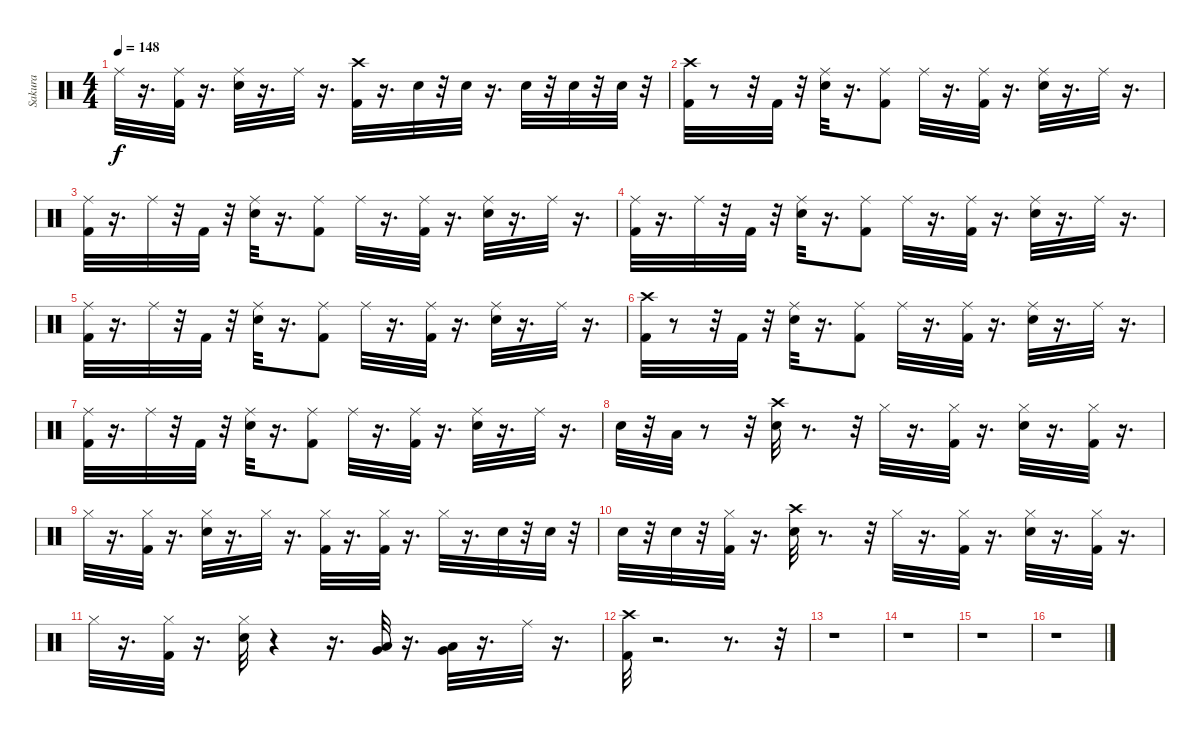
\track ("Sakura" "Sakura") {instrument percussion}
\staff {score}
\articulation defaults
\ts (4 4)
\tempo 148
\clef neutral
\ks c "Ride (middle)".32{dy f}
r.16{d} ("Ride (middle)" "Kick (hit) 2").32 r.16{d} ("Ride (middle)" "Snare (hit) 2").32 r.16{d} "Ride (middle)".32 r.16{d} ("Crash high (hit)" "Kick (hit) 2").32 r.16{d} "Snare (hit) 2".32 r.32 "Snare (hit) 2".32 r.16{d} "Snare (hit) 2".32 r.32 "Snare (hit) 2".32 r.32 "Snare (hit) 2".32 r.32 |
("Crash high (hit)" "Kick (hit) 2").32 r.8 r.32 "Kick (hit) 2".32 r.32 ("Ride (middle)" "Snare (hit) 2").32 r.16{d} ("Ride (middle)" "Kick (hit) 2").8 "Ride (middle)".32 r.16{d} ("Ride (middle)" "Kick (hit) 2").32 r.16{d} ("Ride (middle)" "Snare (hit) 2").32 r.16{d} "Ride (middle)".32 r.16{d} |
("Kick (hit) 2" "Ride (middle)").32 r.16{d} "Ride (middle)".32 r.32 "Kick (hit) 2".32 r.32 ("Ride (middle)" "Snare (hit) 2").32 r.16{d} ("Ride (middle)" "Kick (hit) 2").8 "Ride (middle)".32 r.16{d} ("Ride (middle)" "Kick (hit) 2").32 r.16{d} ("Ride (middle)" "Snare (hit) 2").32 r.16{d} "Ride (middle)".32 r.16{d} |
("Kick (hit) 2" "Ride (middle)").32 r.16{d} "Ride (middle)".32 r.32 "Kick (hit) 2".32 r.32 ("Ride (middle)" "Snare (hit) 2").32 r.16{d} ("Ride (middle)" "Kick (hit) 2").8 "Ride (middle)".32 r.16{d} ("Ride (middle)" "Kick (hit) 2").32 r.16{d} ("Ride (middle)" "Snare (hit) 2").32 r.16{d} "Ride (middle)".32 r.16{d} |
("Kick (hit) 2" "Ride (middle)").32 r.16{d} "Ride (middle)".32 r.32 "Kick (hit) 2".32 r.32 ("Ride (middle)" "Snare (hit) 2").32 r.16{d} ("Ride (middle)" "Kick (hit) 2").8 "Ride (middle)".32 r.16{d} ("Ride (middle)" "Kick (hit) 2").32 r.16{d} ("Ride (middle)" "Snare (hit) 2").32 r.16{d} "Ride (middle)".32 r.16{d} |
("Crash high (hit)" "Kick (hit) 2").32 r.8 r.32 "Kick (hit) 2".32 r.32 ("Ride (middle)" "Snare (hit) 2").32 r.16{d} ("Ride (middle)" "Kick (hit) 2").8 "Ride (middle)".32 r.16{d} ("Ride (middle)" "Kick (hit) 2").32 r.16{d} ("Ride (middle)" "Snare (hit) 2").32 r.16{d} "Ride (middle)".32 r.16{d} |
("Kick (hit) 2" "Ride (middle)").32 r.16{d} "Ride (middle)".32 r.32 "Kick (hit) 2".32 r.32 ("Ride (middle)" "Snare (hit) 2").32 r.16{d} ("Ride (middle)" "Kick (hit) 2").8 "Ride (middle)".32 r.16{d} ("Ride (middle)" "Kick (hit) 2").32 r.16{d} ("Ride (middle)" "Snare (hit) 2").32 r.16{d} "Ride (middle)".32 r.16{d} |
"Snare (hit) 2".32 r.32 "Low Tom (hit)".32 r.8 r.32 ("Snare (hit) 2" "Crash high (hit)").32 r.8{d} r.32 "Hi-Hat (closed)".32 r.16{d} ("Hi-Hat (closed)" "Kick (hit) 2").32 r.16{d} ("Hi-Hat (closed)" "Snare (hit) 2").32 r.16{d} ("Hi-Hat (closed)" "Kick (hit) 2").32 r.16{d} |
"Hi-Hat (closed)".32 r.16{d} ("Hi-Hat (closed)" "Kick (hit) 2").32 r.16{d} ("Hi-Hat (closed)" "Snare (hit) 2").32 r.16{d} "Hi-Hat (closed)".32 r.16{d} ("Hi-Hat (closed)" "Kick (hit) 2").32 r.16{d} ("Hi-Hat (closed)" "Kick (hit) 2").32 r.16{d} "Hi-Hat (closed)".32 r.16{d} "Snare (hit) 2".32 r.32 "Snare (hit) 2".32 r.32 |
"Snare (hit) 2".32 r.32 "Snare (hit) 2".32 r.32 ("Hi-Hat (closed)" "Kick (hit) 2").32 r.16{d} ("Crash high (hit)" "Snare (hit) 2").32 r.8{d} r.32 "Hi-Hat (closed)".32 r.16{d} ("Hi-Hat (closed)" "Kick (hit) 2").32 r.16{d} ("Hi-Hat (closed)" "Snare (hit) 2").32 r.16{d} ("Hi-Hat (closed)" "Kick (hit) 2").32 r.16{d} |
"Hi-Hat (closed)".32 r.16{d} ("Hi-Hat (closed)" "Kick (hit) 2").32 r.16{d} ("Hi-Hat (closed)" "Snare (hit) 2").32 r.4 r.16{d} ("Very Low Tom (hit)" "Low Tom (hit)").32 r.16{d} ("Very Low Tom (hit)" "Low Tom (hit)").32 r.16{d} "Ride (middle)".32 r.16{d} |
("Kick (hit) 2" "Crash high (hit)").32 r.2{d} r.8{d} r.32 |
r.1 |
r.1 |
r.1 |
r.1
